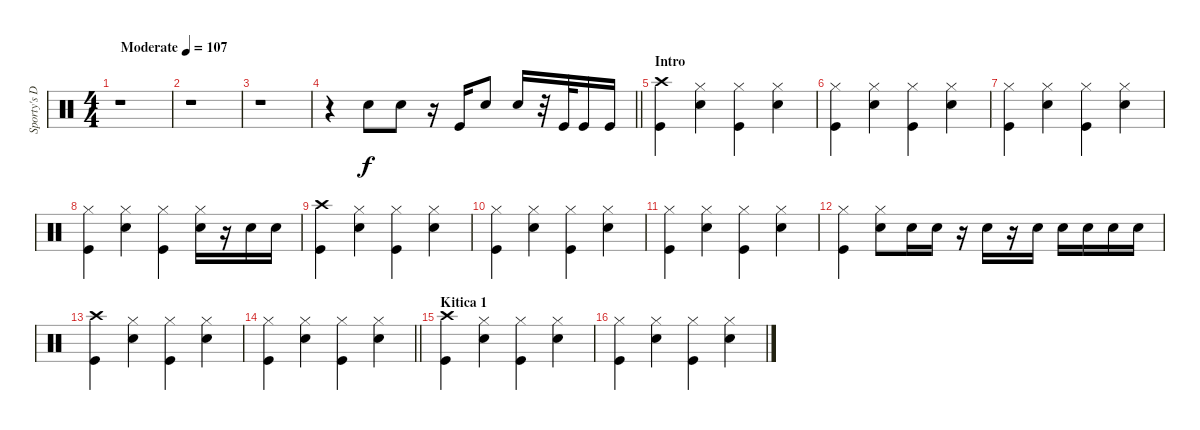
\track ("Sporty's Drums" "Sporty's D") {instrument percussion}
\staff {score}
\articulation defaults
\ts (4 4)
\tempo (107 "Moderate")
\clef neutral
\ks c
r.1{dy f} |
r.1 |
r.1 |
\barLineRight lightlight
r.4 "Electric Snare (hit)".8 "Electric Snare (hit)".8 r.16 "Kick (hit)".16 "Electric Snare (hit)".8 "Electric Snare (hit)".16 r.32 "Kick (hit)".32 "Kick (hit)".16 "Kick (hit)".16 |
\section ("" "Intro")
("Crash high (hit)" "Kick (hit)").4 ("Hi-Hat (closed)" "Electric Snare (hit)").4 ("Hi-Hat (closed)" "Kick (hit)").4 ("Hi-Hat (closed)" "Electric Snare (hit)").4 |
("Hi-Hat (closed)" "Kick (hit)").4 ("Hi-Hat (closed)" "Electric Snare (hit)").4 ("Hi-Hat (closed)" "Kick (hit)").4 ("Hi-Hat (closed)" "Electric Snare (hit)").4 |
("Hi-Hat (closed)" "Kick (hit)").4 ("Hi-Hat (closed)" "Electric Snare (hit)").4 ("Hi-Hat (closed)" "Kick (hit)").4 ("Hi-Hat (closed)" "Electric Snare (hit)").4 |
("Hi-Hat (closed)" "Kick (hit)").4 ("Hi-Hat (closed)" "Electric Snare (hit)").4 ("Hi-Hat (closed)" "Kick (hit)").4 ("Hi-Hat (closed)" "Electric Snare (hit)").16 r.16 "Electric Snare (hit)".16 "Electric Snare (hit)".16 |
("Crash high (hit)" "Kick (hit)").4 ("Hi-Hat (closed)" "Electric Snare (hit)").4 ("Hi-Hat (closed)" "Kick (hit)").4 ("Hi-Hat (closed)" "Electric Snare (hit)").4 |
("Hi-Hat (closed)" "Kick (hit)").4 ("Hi-Hat (closed)" "Electric Snare (hit)").4 ("Hi-Hat (closed)" "Kick (hit)").4 ("Hi-Hat (closed)" "Electric Snare (hit)").4 |
("Hi-Hat (closed)" "Kick (hit)").4 ("Hi-Hat (closed)" "Electric Snare (hit)").4 ("Hi-Hat (closed)" "Kick (hit)").4 ("Hi-Hat (closed)" "Electric Snare (hit)").4 |
("Hi-Hat (closed)" "Kick (hit)").4 ("Hi-Hat (closed)" "Electric Snare (hit)").8 "Electric Snare (hit)".16 "Electric Snare (hit)".16 r.16 "Electric Snare (hit)".16 r.16 "Electric Snare (hit)".16 "Electric Snare (hit)".16 "Electric Snare (hit)".16 "Electric Snare (hit)".16 "Electric Snare (hit)".16 |
("Crash high (hit)" "Kick (hit)").4 ("Hi-Hat (closed)" "Electric Snare (hit)").4 ("Hi-Hat (closed)" "Kick (hit)").4 ("Hi-Hat (closed)" "Electric Snare (hit)").4 |
\barLineRight lightlight
("Hi-Hat (closed)" "Kick (hit)").4 ("Hi-Hat (closed)" "Electric Snare (hit)").4 ("Hi-Hat (closed)" "Kick (hit)").4 ("Hi-Hat (closed)" "Electric Snare (hit)").4 |
\section ("" "Kitica 1")
("Crash high (hit)" "Kick (hit)").4 ("Hi-Hat (closed)" "Electric Snare (hit)").4 ("Hi-Hat (closed)" "Kick (hit)").4 ("Hi-Hat (closed)" "Electric Snare (hit)").4 |
("Hi-Hat (closed)" "Kick (hit)").4 ("Hi-Hat (closed)" "Electric Snare (hit)").4 ("Hi-Hat (closed)" "Kick (hit)").4 ("Hi-Hat (closed)" "Electric Snare (hit)").4
